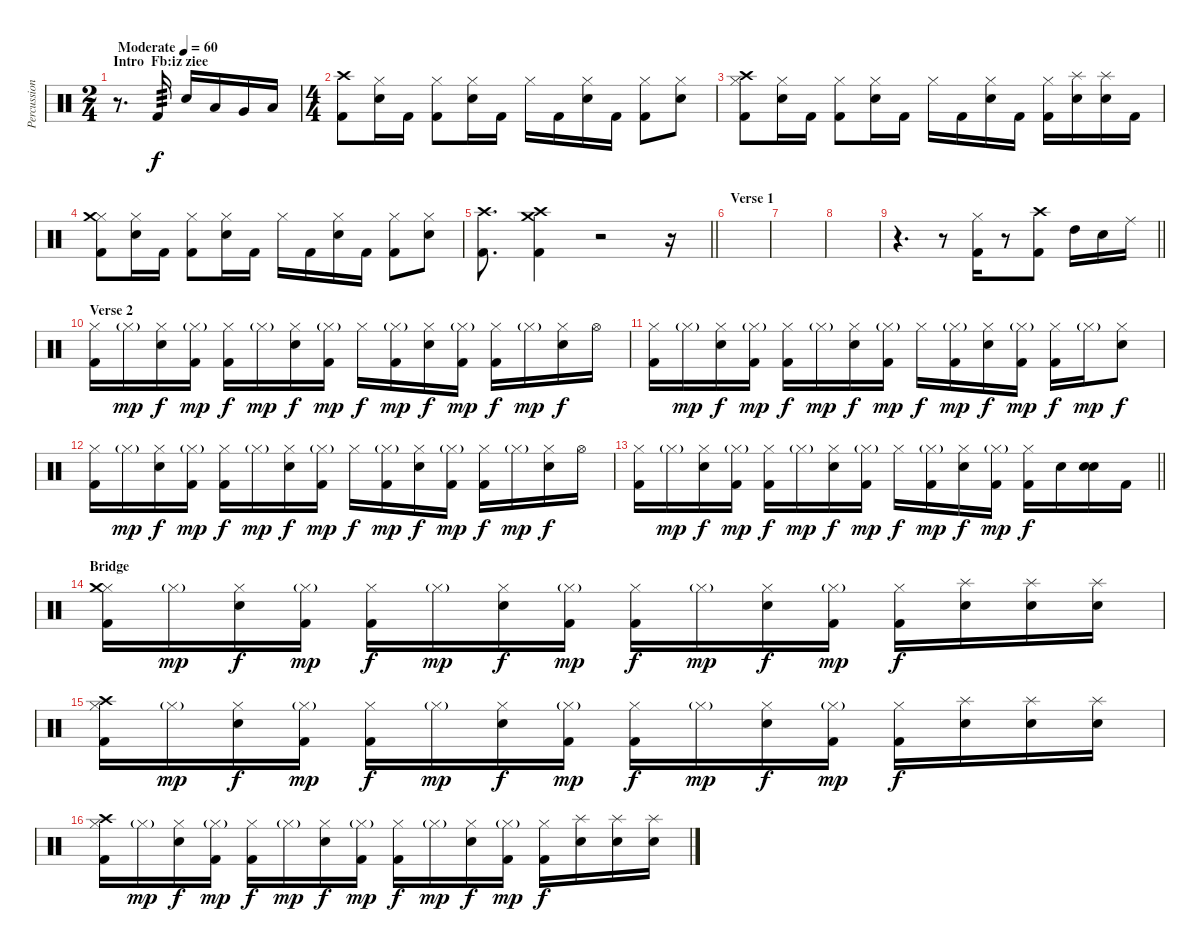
\track ("Percussion" "Percussion") {instrument percussion}
\staff {score}
\articulation defaults
\ts (2 4)
\section ("" "Intro  Fb:iz ziee")
\tempo (60 "Moderate")
\clef neutral
\ks c
r.8{d dy f} "Kick (hit) 2".16{tp 3} "Electric Snare (hit)".16 "Low Tom (hit)".16 "Very Low Tom (hit)".16 "Low Floor Tom (hit)".16 |
\ts (4 4)
("Crash high (hit)" "Kick (hit) 2").8 ("Hi-Hat (closed)" "Electric Snare (hit)").16 "Kick (hit) 2".16 ("Hi-Hat (closed)" "Kick (hit) 2").8 ("Hi-Hat (closed)" "Electric Snare (hit)").16 "Kick (hit) 2".16 "Hi-Hat (closed)".16 "Kick (hit) 2".16 ("Hi-Hat (closed)" "Electric Snare (hit)").16 "Kick (hit) 2".16 ("Hi-Hat (closed)" "Kick (hit) 2").8 ("Hi-Hat (closed)" "Electric Snare (hit)").8 |
("Hi-Hat (closed)" "Crash high (hit)" "Kick (hit) 2").8 ("Hi-Hat (closed)" "Electric Snare (hit)").16 "Kick (hit) 2".16 ("Hi-Hat (closed)" "Kick (hit) 2").8 ("Hi-Hat (closed)" "Electric Snare (hit)").16 "Kick (hit) 2".16 "Hi-Hat (closed)".16 "Kick (hit) 2".16 ("Hi-Hat (closed)" "Electric Snare (hit)").16 "Kick (hit) 2".16 ("Hi-Hat (closed)" "Kick (hit) 2").16 ("Splash (hit)" "Electric Snare (hit)").16 ("Splash (hit)" "Electric Snare (hit)").16 "Kick (hit) 2".16 |
("Hi-Hat (closed)" "Crash medium (hit)" "Kick (hit) 2").8 ("Hi-Hat (closed)" "Electric Snare (hit)").16 "Kick (hit) 2".16 ("Hi-Hat (closed)" "Kick (hit) 2").8 ("Hi-Hat (closed)" "Electric Snare (hit)").16 "Kick (hit) 2".16 "Hi-Hat (closed)".16 "Kick (hit) 2".16 ("Hi-Hat (closed)" "Electric Snare (hit)").16 "Kick (hit) 2".16 ("Hi-Hat (closed)" "Kick (hit) 2").8 ("Hi-Hat (closed)" "Electric Snare (hit)").8 |
\barLineRight lightlight
("Crash high (hit)" "Kick (hit) 2").8{d} ("Crash high (hit)" "Crash medium (hit)" "Kick (hit) 2").4 r.2 r.16 |
\section ("" "Verse 1")
|
|
|
\barLineRight lightlight
r.4{d} r.8 ("Hi-Hat (closed)" "Kick (hit) 2").16 r.8 ("Crash high (hit)" "Kick (hit) 2").8 "High Tom (hit)".16 "Electric Snare (hit)".16 "Ride (middle)".16 |
\section ("" "Verse 2")
("Hi-Hat (closed)" "Kick (hit) 2").16 "Hi-Hat (closed)"{g}.16{dy mp} ("Hi-Hat (closed)" "Electric Snare (hit)").16{dy f} ("Hi-Hat (closed)"{g} "Kick (hit) 2").16{dy mp} ("Hi-Hat (closed)" "Kick (hit) 2").16{dy f} "Hi-Hat (closed)"{g}.16{dy mp} ("Hi-Hat (closed)" "Electric Snare (hit)").16{dy f} ("Hi-Hat (closed)"{g} "Kick (hit) 2").16{dy mp} "Hi-Hat (closed)".16{dy f} ("Hi-Hat (closed)"{g} "Kick (hit) 2").16{dy mp} ("Hi-Hat (closed)" "Electric Snare (hit)").16{dy f} ("Hi-Hat (closed)"{g} "Kick (hit) 2").16{dy mp} ("Hi-Hat (closed)" "Kick (hit) 2").16{dy f} "Hi-Hat (closed)"{g}.16{dy mp} ("Hi-Hat (closed)" "Electric Snare (hit)").16{dy f} "Hi-Hat (open)".16 |
("Hi-Hat (closed)" "Kick (hit) 2").16 "Hi-Hat (closed)"{g}.16{dy mp} ("Hi-Hat (closed)" "Electric Snare (hit)").16{dy f} ("Hi-Hat (closed)"{g} "Kick (hit) 2").16{dy mp} ("Hi-Hat (closed)" "Kick (hit) 2").16{dy f} "Hi-Hat (closed)"{g}.16{dy mp} ("Hi-Hat (closed)" "Electric Snare (hit)").16{dy f} ("Hi-Hat (closed)"{g} "Kick (hit) 2").16{dy mp} "Hi-Hat (closed)".16{dy f} ("Hi-Hat (closed)"{g} "Kick (hit) 2").16{dy mp} ("Hi-Hat (closed)" "Electric Snare (hit)").16{dy f} ("Hi-Hat (closed)"{g} "Kick (hit) 2").16{dy mp} ("Hi-Hat (closed)" "Kick (hit) 2").16{dy f} "Hi-Hat (closed)"{g}.16{dy mp} ("Hi-Hat (closed)" "Electric Snare (hit)").8{dy f} |
("Hi-Hat (closed)" "Kick (hit) 2").16 "Hi-Hat (closed)"{g}.16{dy mp} ("Hi-Hat (closed)" "Electric Snare (hit)").16{dy f} ("Hi-Hat (closed)"{g} "Kick (hit) 2").16{dy mp} ("Hi-Hat (closed)" "Kick (hit) 2").16{dy f} "Hi-Hat (closed)"{g}.16{dy mp} ("Hi-Hat (closed)" "Electric Snare (hit)").16{dy f} ("Hi-Hat (closed)"{g} "Kick (hit) 2").16{dy mp} "Hi-Hat (closed)".16{dy f} ("Hi-Hat (closed)"{g} "Kick (hit) 2").16{dy mp} ("Hi-Hat (closed)" "Electric Snare (hit)").16{dy f} ("Hi-Hat (closed)"{g} "Kick (hit) 2").16{dy mp} ("Hi-Hat (closed)" "Kick (hit) 2").16{dy f} "Hi-Hat (closed)"{g}.16{dy mp} ("Hi-Hat (closed)" "Electric Snare (hit)").16{dy f} "Hi-Hat (open)".16 |
\barLineRight lightlight
("Hi-Hat (closed)" "Kick (hit) 2").16 "Hi-Hat (closed)"{g}.16{dy mp} ("Hi-Hat (closed)" "Electric Snare (hit)").16{dy f} ("Hi-Hat (closed)"{g} "Kick (hit) 2").16{dy mp} ("Hi-Hat (closed)" "Kick (hit) 2").16{dy f} "Hi-Hat (closed)"{g}.16{dy mp} ("Hi-Hat (closed)" "Electric Snare (hit)").16{dy f} ("Hi-Hat (closed)"{g} "Kick (hit) 2").16{dy mp} "Hi-Hat (closed)".16{dy f} ("Hi-Hat (closed)"{g} "Kick (hit) 2").16{dy mp} ("Hi-Hat (closed)" "Electric Snare (hit)").16{dy f} ("Hi-Hat (closed)"{g} "Kick (hit) 2").16{dy mp} ("Hi-Hat (closed)" "Kick (hit) 2").16{dy f} "Electric Snare (hit)".16 ("Electric Snare (hit)" "Electric Snare (hit)").16{bd 60} "Kick (hit) 2".16 |
\section ("" "Bridge")
("Hi-Hat (closed)" "Crash medium (hit)" "Kick (hit) 2").16 "Hi-Hat (closed)"{g}.16{dy mp} ("Hi-Hat (closed)" "Electric Snare (hit)").16{dy f} ("Hi-Hat (closed)"{g} "Kick (hit) 2").16{dy mp} ("Hi-Hat (closed)" "Kick (hit) 2").16{dy f} "Hi-Hat (closed)"{g}.16{dy mp} ("Hi-Hat (closed)" "Electric Snare (hit)").16{dy f} ("Hi-Hat (closed)"{g} "Kick (hit) 2").16{dy mp} ("Hi-Hat (closed)" "Kick (hit) 2").16{dy f} "Hi-Hat (closed)"{g}.16{dy mp} ("Hi-Hat (closed)" "Electric Snare (hit)").16{dy f} ("Hi-Hat (closed)"{g} "Kick (hit) 2").16{dy mp} ("Hi-Hat (closed)" "Kick (hit) 2").16{dy f} ("Splash (hit)" "Electric Snare (hit)").16 ("Splash (hit)" "Electric Snare (hit)").16 ("Splash (hit)" "Electric Snare (hit)").16 |
("Hi-Hat (closed)" "Crash high (hit)" "Kick (hit) 2").16 "Hi-Hat (closed)"{g}.16{dy mp} ("Hi-Hat (closed)" "Electric Snare (hit)").16{dy f} ("Hi-Hat (closed)"{g} "Kick (hit) 2").16{dy mp} ("Hi-Hat (closed)" "Kick (hit) 2").16{dy f} "Hi-Hat (closed)"{g}.16{dy mp} ("Hi-Hat (closed)" "Electric Snare (hit)").16{dy f} ("Hi-Hat (closed)"{g} "Kick (hit) 2").16{dy mp} ("Hi-Hat (closed)" "Kick (hit) 2").16{dy f} "Hi-Hat (closed)"{g}.16{dy mp} ("Hi-Hat (closed)" "Electric Snare (hit)").16{dy f} ("Hi-Hat (closed)"{g} "Kick (hit) 2").16{dy mp} ("Hi-Hat (closed)" "Kick (hit) 2").16{dy f} ("Splash (hit)" "Electric Snare (hit)").16 ("Splash (hit)" "Electric Snare (hit)").16 ("Splash (hit)" "Electric Snare (hit)").16 |
("Hi-Hat (closed)" "Crash high (hit)" "Kick (hit) 2").16 "Hi-Hat (closed)"{g}.16{dy mp} ("Hi-Hat (closed)" "Electric Snare (hit)").16{dy f} ("Hi-Hat (closed)"{g} "Kick (hit) 2").16{dy mp} ("Hi-Hat (closed)" "Kick (hit) 2").16{dy f} "Hi-Hat (closed)"{g}.16{dy mp} ("Hi-Hat (closed)" "Electric Snare (hit)").16{dy f} ("Hi-Hat (closed)"{g} "Kick (hit) 2").16{dy mp} ("Hi-Hat (closed)" "Kick (hit) 2").16{dy f} "Hi-Hat (closed)"{g}.16{dy mp} ("Hi-Hat (closed)" "Electric Snare (hit)").16{dy f} ("Hi-Hat (closed)"{g} "Kick (hit) 2").16{dy mp} ("Hi-Hat (closed)" "Kick (hit) 2").16{dy f} ("Splash (hit)" "Electric Snare (hit)").16 ("Splash (hit)" "Electric Snare (hit)").16 ("Splash (hit)" "Electric Snare (hit)").16
